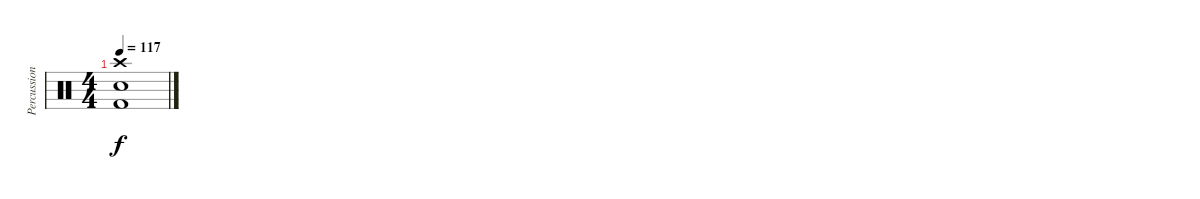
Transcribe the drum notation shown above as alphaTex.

\track ("Percussions" "Percussion") {instrument percussion}
\staff {score}
\articulation defaults
\ts (4 4)
\tempo 117
\clef neutral
\ks c
("Crash high (hit)" "Electric Snare (hit)" "Kick (hit) 2").1{dy f}
